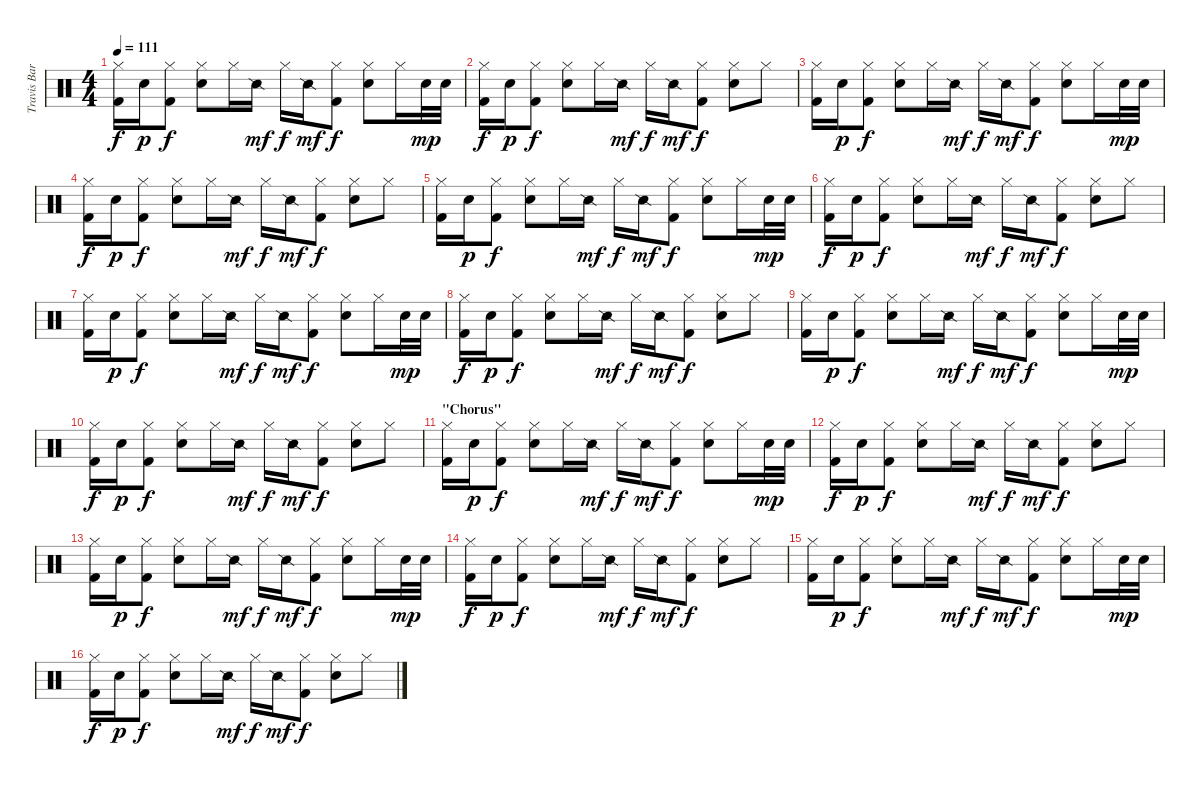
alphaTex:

\track ("Travis Barker - Drums" "Travis Bar") {instrument percussion}
\staff {score}
\articulation defaults
\ts (4 4)
\tempo 111
\clef neutral
\ks c
("Hi-Hat (closed)" "Kick (hit) 2").16{dy f} "Electric Snare (hit)".16{dy p} ("Hi-Hat (closed)" "Kick (hit) 2").8{dy f} ("Hi-Hat (closed)" "Electric Snare (hit)").8 "Hi-Hat (closed)".16 "Snare (side stick) 2".16{dy mf} "Hi-Hat (closed)".16{dy f} "Snare (side stick) 2".16{dy mf} ("Hi-Hat (closed)" "Kick (hit) 2").8{dy f} ("Hi-Hat (closed)" "Electric Snare (hit)").8 "Hi-Hat (closed)".16 "Electric Snare (hit)".32{dy mp} "Electric Snare (hit)".32 |
("Hi-Hat (closed)" "Kick (hit) 2").16{dy f} "Electric Snare (hit)".16{dy p} ("Hi-Hat (closed)" "Kick (hit) 2").8{dy f} ("Hi-Hat (closed)" "Electric Snare (hit)").8 "Hi-Hat (closed)".16 "Snare (side stick) 2".16{dy mf} "Hi-Hat (closed)".16{dy f} "Snare (side stick) 2".16{dy mf} ("Hi-Hat (closed)" "Kick (hit) 2").8{dy f} ("Hi-Hat (closed)" "Electric Snare (hit)").8 "Hi-Hat (closed)".8 |
("Hi-Hat (closed)" "Kick (hit) 2").16 "Electric Snare (hit)".16{dy p} ("Hi-Hat (closed)" "Kick (hit) 2").8{dy f} ("Hi-Hat (closed)" "Electric Snare (hit)").8 "Hi-Hat (closed)".16 "Snare (side stick) 2".16{dy mf} "Hi-Hat (closed)".16{dy f} "Snare (side stick) 2".16{dy mf} ("Hi-Hat (closed)" "Kick (hit) 2").8{dy f} ("Hi-Hat (closed)" "Electric Snare (hit)").8 "Hi-Hat (closed)".16 "Electric Snare (hit)".32{dy mp} "Electric Snare (hit)".32 |
("Hi-Hat (closed)" "Kick (hit) 2").16{dy f} "Electric Snare (hit)".16{dy p} ("Hi-Hat (closed)" "Kick (hit) 2").8{dy f} ("Hi-Hat (closed)" "Electric Snare (hit)").8 "Hi-Hat (closed)".16 "Snare (side stick) 2".16{dy mf} "Hi-Hat (closed)".16{dy f} "Snare (side stick) 2".16{dy mf} ("Hi-Hat (closed)" "Kick (hit) 2").8{dy f} ("Hi-Hat (closed)" "Electric Snare (hit)").8 "Hi-Hat (closed)".8 |
("Hi-Hat (closed)" "Kick (hit) 2").16 "Electric Snare (hit)".16{dy p} ("Hi-Hat (closed)" "Kick (hit) 2").8{dy f} ("Hi-Hat (closed)" "Electric Snare (hit)").8 "Hi-Hat (closed)".16 "Snare (side stick) 2".16{dy mf} "Hi-Hat (closed)".16{dy f} "Snare (side stick) 2".16{dy mf} ("Hi-Hat (closed)" "Kick (hit) 2").8{dy f} ("Hi-Hat (closed)" "Electric Snare (hit)").8 "Hi-Hat (closed)".16 "Electric Snare (hit)".32{dy mp} "Electric Snare (hit)".32 |
("Hi-Hat (closed)" "Kick (hit) 2").16{dy f} "Electric Snare (hit)".16{dy p} ("Hi-Hat (closed)" "Kick (hit) 2").8{dy f} ("Hi-Hat (closed)" "Electric Snare (hit)").8 "Hi-Hat (closed)".16 "Snare (side stick) 2".16{dy mf} "Hi-Hat (closed)".16{dy f} "Snare (side stick) 2".16{dy mf} ("Hi-Hat (closed)" "Kick (hit) 2").8{dy f} ("Hi-Hat (closed)" "Electric Snare (hit)").8 "Hi-Hat (closed)".8 |
("Hi-Hat (closed)" "Kick (hit) 2").16 "Electric Snare (hit)".16{dy p} ("Hi-Hat (closed)" "Kick (hit) 2").8{dy f} ("Hi-Hat (closed)" "Electric Snare (hit)").8 "Hi-Hat (closed)".16 "Snare (side stick) 2".16{dy mf} "Hi-Hat (closed)".16{dy f} "Snare (side stick) 2".16{dy mf} ("Hi-Hat (closed)" "Kick (hit) 2").8{dy f} ("Hi-Hat (closed)" "Electric Snare (hit)").8 "Hi-Hat (closed)".16 "Electric Snare (hit)".32{dy mp} "Electric Snare (hit)".32 |
("Hi-Hat (closed)" "Kick (hit) 2").16{dy f} "Electric Snare (hit)".16{dy p} ("Hi-Hat (closed)" "Kick (hit) 2").8{dy f} ("Hi-Hat (closed)" "Electric Snare (hit)").8 "Hi-Hat (closed)".16 "Snare (side stick) 2".16{dy mf} "Hi-Hat (closed)".16{dy f} "Snare (side stick) 2".16{dy mf} ("Hi-Hat (closed)" "Kick (hit) 2").8{dy f} ("Hi-Hat (closed)" "Electric Snare (hit)").8 "Hi-Hat (closed)".8 |
("Hi-Hat (closed)" "Kick (hit) 2").16 "Electric Snare (hit)".16{dy p} ("Hi-Hat (closed)" "Kick (hit) 2").8{dy f} ("Hi-Hat (closed)" "Electric Snare (hit)").8 "Hi-Hat (closed)".16 "Snare (side stick) 2".16{dy mf} "Hi-Hat (closed)".16{dy f} "Snare (side stick) 2".16{dy mf} ("Hi-Hat (closed)" "Kick (hit) 2").8{dy f} ("Hi-Hat (closed)" "Electric Snare (hit)").8 "Hi-Hat (closed)".16 "Electric Snare (hit)".32{dy mp} "Electric Snare (hit)".32 |
("Hi-Hat (closed)" "Kick (hit) 2").16{dy f} "Electric Snare (hit)".16{dy p} ("Hi-Hat (closed)" "Kick (hit) 2").8{dy f} ("Hi-Hat (closed)" "Electric Snare (hit)").8 "Hi-Hat (closed)".16 "Snare (side stick) 2".16{dy mf} "Hi-Hat (closed)".16{dy f} "Snare (side stick) 2".16{dy mf} ("Hi-Hat (closed)" "Kick (hit) 2").8{dy f} ("Hi-Hat (closed)" "Electric Snare (hit)").8 "Hi-Hat (closed)".8 |
\section ("" "\"Chorus\"")
("Hi-Hat (closed)" "Kick (hit) 2").16 "Electric Snare (hit)".16{dy p} ("Hi-Hat (closed)" "Kick (hit) 2").8{dy f} ("Hi-Hat (closed)" "Electric Snare (hit)").8 "Hi-Hat (closed)".16 "Snare (side stick) 2".16{dy mf} "Hi-Hat (closed)".16{dy f} "Snare (side stick) 2".16{dy mf} ("Hi-Hat (closed)" "Kick (hit) 2").8{dy f} ("Hi-Hat (closed)" "Electric Snare (hit)").8 "Hi-Hat (closed)".16 "Electric Snare (hit)".32{dy mp} "Electric Snare (hit)".32 |
("Hi-Hat (closed)" "Kick (hit) 2").16{dy f} "Electric Snare (hit)".16{dy p} ("Hi-Hat (closed)" "Kick (hit) 2").8{dy f} ("Hi-Hat (closed)" "Electric Snare (hit)").8 "Hi-Hat (closed)".16 "Snare (side stick) 2".16{dy mf} "Hi-Hat (closed)".16{dy f} "Snare (side stick) 2".16{dy mf} ("Hi-Hat (closed)" "Kick (hit) 2").8{dy f} ("Hi-Hat (closed)" "Electric Snare (hit)").8 "Hi-Hat (closed)".8 |
("Hi-Hat (closed)" "Kick (hit) 2").16 "Electric Snare (hit)".16{dy p} ("Hi-Hat (closed)" "Kick (hit) 2").8{dy f} ("Hi-Hat (closed)" "Electric Snare (hit)").8 "Hi-Hat (closed)".16 "Snare (side stick) 2".16{dy mf} "Hi-Hat (closed)".16{dy f} "Snare (side stick) 2".16{dy mf} ("Hi-Hat (closed)" "Kick (hit) 2").8{dy f} ("Hi-Hat (closed)" "Electric Snare (hit)").8 "Hi-Hat (closed)".16 "Electric Snare (hit)".32{dy mp} "Electric Snare (hit)".32 |
("Hi-Hat (closed)" "Kick (hit) 2").16{dy f} "Electric Snare (hit)".16{dy p} ("Hi-Hat (closed)" "Kick (hit) 2").8{dy f} ("Hi-Hat (closed)" "Electric Snare (hit)").8 "Hi-Hat (closed)".16 "Snare (side stick) 2".16{dy mf} "Hi-Hat (closed)".16{dy f} "Snare (side stick) 2".16{dy mf} ("Hi-Hat (closed)" "Kick (hit) 2").8{dy f} ("Hi-Hat (closed)" "Electric Snare (hit)").8 "Hi-Hat (closed)".8 |
("Hi-Hat (closed)" "Kick (hit) 2").16 "Electric Snare (hit)".16{dy p} ("Hi-Hat (closed)" "Kick (hit) 2").8{dy f} ("Hi-Hat (closed)" "Electric Snare (hit)").8 "Hi-Hat (closed)".16 "Snare (side stick) 2".16{dy mf} "Hi-Hat (closed)".16{dy f} "Snare (side stick) 2".16{dy mf} ("Hi-Hat (closed)" "Kick (hit) 2").8{dy f} ("Hi-Hat (closed)" "Electric Snare (hit)").8 "Hi-Hat (closed)".16 "Electric Snare (hit)".32{dy mp} "Electric Snare (hit)".32 |
("Hi-Hat (closed)" "Kick (hit) 2").16{dy f} "Electric Snare (hit)".16{dy p} ("Hi-Hat (closed)" "Kick (hit) 2").8{dy f} ("Hi-Hat (closed)" "Electric Snare (hit)").8 "Hi-Hat (closed)".16 "Snare (side stick) 2".16{dy mf} "Hi-Hat (closed)".16{dy f} "Snare (side stick) 2".16{dy mf} ("Hi-Hat (closed)" "Kick (hit) 2").8{dy f} ("Hi-Hat (closed)" "Electric Snare (hit)").8 "Hi-Hat (closed)".8
